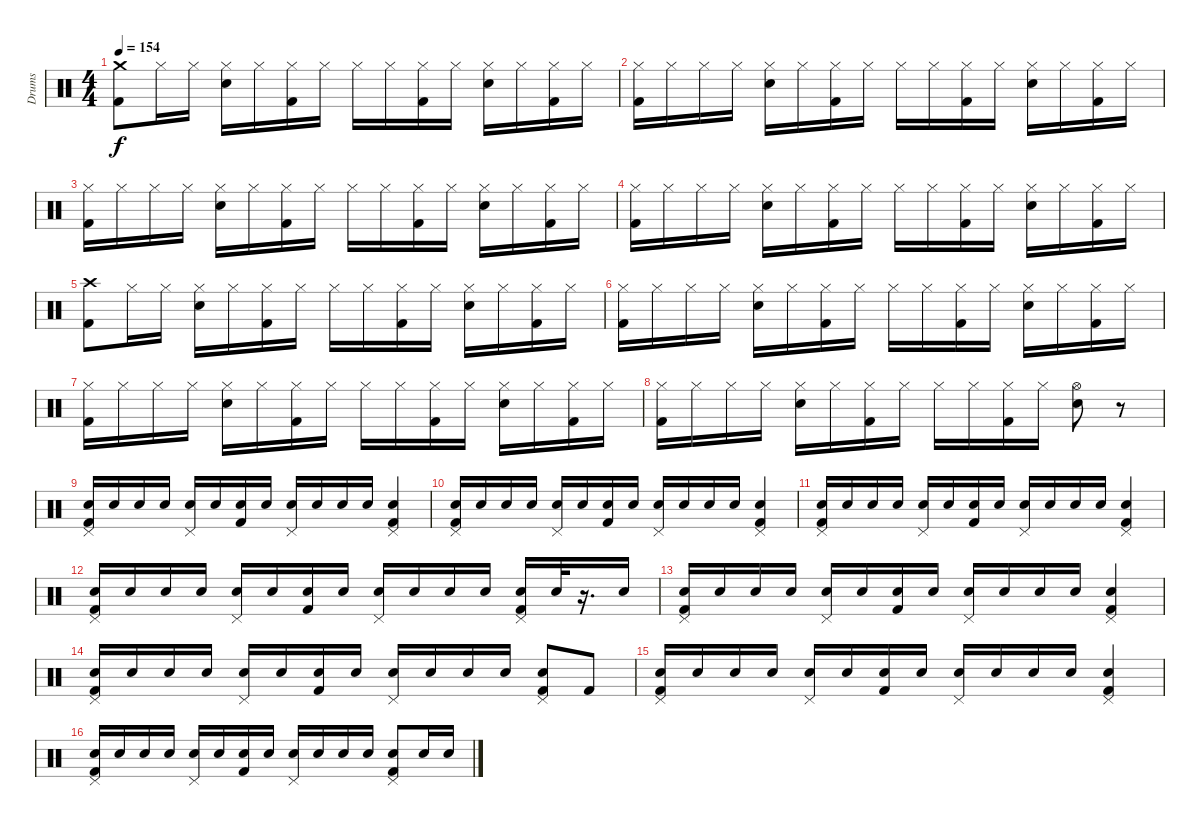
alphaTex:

\track ("Drums" "Drums") {instrument percussion}
\staff {score}
\articulation defaults
\ts (4 4)
\tempo 154
\clef neutral
\ks c
("Crash medium (hit)" "Kick (hit) 2").8{dy f} "Hi-Hat (closed)".16 "Hi-Hat (closed)".16 ("Hi-Hat (closed)" "Electric Snare (hit)").16 "Hi-Hat (closed)".16 ("Kick (hit) 2" "Hi-Hat (closed)").16 "Hi-Hat (closed)".16 "Hi-Hat (closed)".16 "Hi-Hat (closed)".16 ("Kick (hit) 2" "Hi-Hat (closed)").16 "Hi-Hat (closed)".16 ("Electric Snare (hit)" "Hi-Hat (closed)").16 "Hi-Hat (closed)".16 ("Kick (hit) 2" "Hi-Hat (closed)").16 "Hi-Hat (closed)".16 |
("Hi-Hat (closed)" "Kick (hit) 2").16 "Hi-Hat (closed)".16 "Hi-Hat (closed)".16 "Hi-Hat (closed)".16 ("Hi-Hat (closed)" "Electric Snare (hit)").16 "Hi-Hat (closed)".16 ("Kick (hit) 2" "Hi-Hat (closed)").16 "Hi-Hat (closed)".16 "Hi-Hat (closed)".16 "Hi-Hat (closed)".16 ("Kick (hit) 2" "Hi-Hat (closed)").16 "Hi-Hat (closed)".16 ("Electric Snare (hit)" "Hi-Hat (closed)").16 "Hi-Hat (closed)".16 ("Kick (hit) 2" "Hi-Hat (closed)").16 "Hi-Hat (closed)".16 |
("Hi-Hat (closed)" "Kick (hit) 2").16 "Hi-Hat (closed)".16 "Hi-Hat (closed)".16 "Hi-Hat (closed)".16 ("Hi-Hat (closed)" "Electric Snare (hit)").16 "Hi-Hat (closed)".16 ("Kick (hit) 2" "Hi-Hat (closed)").16 "Hi-Hat (closed)".16 "Hi-Hat (closed)".16 "Hi-Hat (closed)".16 ("Kick (hit) 2" "Hi-Hat (closed)").16 "Hi-Hat (closed)".16 ("Electric Snare (hit)" "Hi-Hat (closed)").16 "Hi-Hat (closed)".16 ("Kick (hit) 2" "Hi-Hat (closed)").16 "Hi-Hat (closed)".16 |
("Hi-Hat (closed)" "Kick (hit) 2").16 "Hi-Hat (closed)".16 "Hi-Hat (closed)".16 "Hi-Hat (closed)".16 ("Hi-Hat (closed)" "Electric Snare (hit)").16 "Hi-Hat (closed)".16 ("Kick (hit) 2" "Hi-Hat (closed)").16 "Hi-Hat (closed)".16 "Hi-Hat (closed)".16 "Hi-Hat (closed)".16 ("Kick (hit) 2" "Hi-Hat (closed)").16 "Hi-Hat (closed)".16 ("Electric Snare (hit)" "Hi-Hat (closed)").16 "Hi-Hat (closed)".16 ("Kick (hit) 2" "Hi-Hat (closed)").16 "Hi-Hat (closed)".16 |
("Crash high (hit)" "Kick (hit) 2").8 "Hi-Hat (closed)".16 "Hi-Hat (closed)".16 ("Hi-Hat (closed)" "Electric Snare (hit)").16 "Hi-Hat (closed)".16 ("Kick (hit) 2" "Hi-Hat (closed)").16 "Hi-Hat (closed)".16 "Hi-Hat (closed)".16 "Hi-Hat (closed)".16 ("Kick (hit) 2" "Hi-Hat (closed)").16 "Hi-Hat (closed)".16 ("Electric Snare (hit)" "Hi-Hat (closed)").16 "Hi-Hat (closed)".16 ("Kick (hit) 2" "Hi-Hat (closed)").16 "Hi-Hat (closed)".16 |
("Hi-Hat (closed)" "Kick (hit) 2").16 "Hi-Hat (closed)".16 "Hi-Hat (closed)".16 "Hi-Hat (closed)".16 ("Hi-Hat (closed)" "Electric Snare (hit)").16 "Hi-Hat (closed)".16 ("Kick (hit) 2" "Hi-Hat (closed)").16 "Hi-Hat (closed)".16 "Hi-Hat (closed)".16 "Hi-Hat (closed)".16 ("Kick (hit) 2" "Hi-Hat (closed)").16 "Hi-Hat (closed)".16 ("Electric Snare (hit)" "Hi-Hat (closed)").16 "Hi-Hat (closed)".16 ("Kick (hit) 2" "Hi-Hat (closed)").16 "Hi-Hat (closed)".16 |
("Hi-Hat (closed)" "Kick (hit) 2").16 "Hi-Hat (closed)".16 "Hi-Hat (closed)".16 "Hi-Hat (closed)".16 ("Hi-Hat (closed)" "Electric Snare (hit)").16 "Hi-Hat (closed)".16 ("Kick (hit) 2" "Hi-Hat (closed)").16 "Hi-Hat (closed)".16 "Hi-Hat (closed)".16 "Hi-Hat (closed)".16 ("Kick (hit) 2" "Hi-Hat (closed)").16 "Hi-Hat (closed)".16 ("Electric Snare (hit)" "Hi-Hat (closed)").16 "Hi-Hat (closed)".16 ("Kick (hit) 2" "Hi-Hat (closed)").16 "Hi-Hat (closed)".16 |
("Hi-Hat (closed)" "Kick (hit) 2").16 "Hi-Hat (closed)".16 "Hi-Hat (closed)".16 "Hi-Hat (closed)".16 ("Hi-Hat (closed)" "Electric Snare (hit)").16 "Hi-Hat (closed)".16 ("Kick (hit) 2" "Hi-Hat (closed)").16 "Hi-Hat (closed)".16 "Hi-Hat (closed)".16 "Hi-Hat (closed)".16 ("Kick (hit) 2" "Hi-Hat (closed)").16 "Hi-Hat (closed)".16 ("Hi-Hat (open)" "Electric Snare (hit)").8 r.8 |
("Pedal Hi-Hat (hit)" "Electric Snare (hit)" "Kick (hit) 2").16 "Electric Snare (hit)".16 "Electric Snare (hit)".16 "Electric Snare (hit)".16 ("Pedal Hi-Hat (hit)" "Electric Snare (hit)").16 "Electric Snare (hit)".16 ("Kick (hit) 2" "Electric Snare (hit)").16 "Electric Snare (hit)".16 ("Pedal Hi-Hat (hit)" "Electric Snare (hit)").16 "Electric Snare (hit)".16 "Electric Snare (hit)".16 "Electric Snare (hit)".16 ("Kick (hit) 2" "Electric Snare (hit)" "Pedal Hi-Hat (hit)").4 |
("Pedal Hi-Hat (hit)" "Electric Snare (hit)" "Kick (hit) 2").16 "Electric Snare (hit)".16 "Electric Snare (hit)".16 "Electric Snare (hit)".16 ("Pedal Hi-Hat (hit)" "Electric Snare (hit)").16 "Electric Snare (hit)".16 ("Kick (hit) 2" "Electric Snare (hit)").16 "Electric Snare (hit)".16 ("Pedal Hi-Hat (hit)" "Electric Snare (hit)").16 "Electric Snare (hit)".16 "Electric Snare (hit)".16 "Electric Snare (hit)".16 ("Kick (hit) 2" "Electric Snare (hit)" "Pedal Hi-Hat (hit)").4 |
("Electric Snare (hit)" "Pedal Hi-Hat (hit)" "Kick (hit) 2").16 "Electric Snare (hit)".16 "Electric Snare (hit)".16 "Electric Snare (hit)".16 ("Pedal Hi-Hat (hit)" "Electric Snare (hit)").16 "Electric Snare (hit)".16 ("Kick (hit) 2" "Electric Snare (hit)").16 "Electric Snare (hit)".16 ("Pedal Hi-Hat (hit)" "Electric Snare (hit)").16 "Electric Snare (hit)".16 "Electric Snare (hit)".16 "Electric Snare (hit)".16 ("Kick (hit) 2" "Electric Snare (hit)" "Pedal Hi-Hat (hit)").4 |
("Pedal Hi-Hat (hit)" "Electric Snare (hit)" "Kick (hit) 2").16 "Electric Snare (hit)".16 "Electric Snare (hit)".16 "Electric Snare (hit)".16 ("Pedal Hi-Hat (hit)" "Electric Snare (hit)").16 "Electric Snare (hit)".16 ("Kick (hit) 2" "Electric Snare (hit)").16 "Electric Snare (hit)".16 ("Pedal Hi-Hat (hit)" "Electric Snare (hit)").16 "Electric Snare (hit)".16 "Electric Snare (hit)".16 "Electric Snare (hit)".16 ("Kick (hit) 2" "Electric Snare (hit)" "Pedal Hi-Hat (hit)").16 "Electric Snare (hit)".32 r.16{d} "Electric Snare (hit)".16 |
("Pedal Hi-Hat (hit)" "Electric Snare (hit)" "Kick (hit) 2").16 "Electric Snare (hit)".16 "Electric Snare (hit)".16 "Electric Snare (hit)".16 ("Pedal Hi-Hat (hit)" "Electric Snare (hit)").16 "Electric Snare (hit)".16 ("Kick (hit) 2" "Electric Snare (hit)").16 "Electric Snare (hit)".16 ("Pedal Hi-Hat (hit)" "Electric Snare (hit)").16 "Electric Snare (hit)".16 "Electric Snare (hit)".16 "Electric Snare (hit)".16 ("Kick (hit) 2" "Electric Snare (hit)" "Pedal Hi-Hat (hit)").4 |
("Pedal Hi-Hat (hit)" "Electric Snare (hit)" "Kick (hit) 2").16 "Electric Snare (hit)".16 "Electric Snare (hit)".16 "Electric Snare (hit)".16 ("Pedal Hi-Hat (hit)" "Electric Snare (hit)").16 "Electric Snare (hit)".16 ("Kick (hit) 2" "Electric Snare (hit)").16 "Electric Snare (hit)".16 ("Pedal Hi-Hat (hit)" "Electric Snare (hit)").16 "Electric Snare (hit)".16 "Electric Snare (hit)".16 "Electric Snare (hit)".16 ("Kick (hit) 2" "Electric Snare (hit)" "Pedal Hi-Hat (hit)").8 "Kick (hit) 2".8 |
("Pedal Hi-Hat (hit)" "Electric Snare (hit)" "Kick (hit) 2").16 "Electric Snare (hit)".16 "Electric Snare (hit)".16 "Electric Snare (hit)".16 ("Pedal Hi-Hat (hit)" "Electric Snare (hit)").16 "Electric Snare (hit)".16 ("Kick (hit) 2" "Electric Snare (hit)").16 "Electric Snare (hit)".16 ("Pedal Hi-Hat (hit)" "Electric Snare (hit)").16 "Electric Snare (hit)".16 "Electric Snare (hit)".16 "Electric Snare (hit)".16 ("Kick (hit) 2" "Electric Snare (hit)" "Pedal Hi-Hat (hit)").4 |
("Pedal Hi-Hat (hit)" "Electric Snare (hit)" "Kick (hit) 2").16 "Electric Snare (hit)".16 "Electric Snare (hit)".16 "Electric Snare (hit)".16 ("Pedal Hi-Hat (hit)" "Electric Snare (hit)").16 "Electric Snare (hit)".16 ("Kick (hit) 2" "Electric Snare (hit)").16 "Electric Snare (hit)".16 ("Pedal Hi-Hat (hit)" "Electric Snare (hit)").16 "Electric Snare (hit)".16 "Electric Snare (hit)".16 "Electric Snare (hit)".16 ("Kick (hit) 2" "Electric Snare (hit)" "Pedal Hi-Hat (hit)").8 "Electric Snare (hit)".16 "Electric Snare (hit)".16
